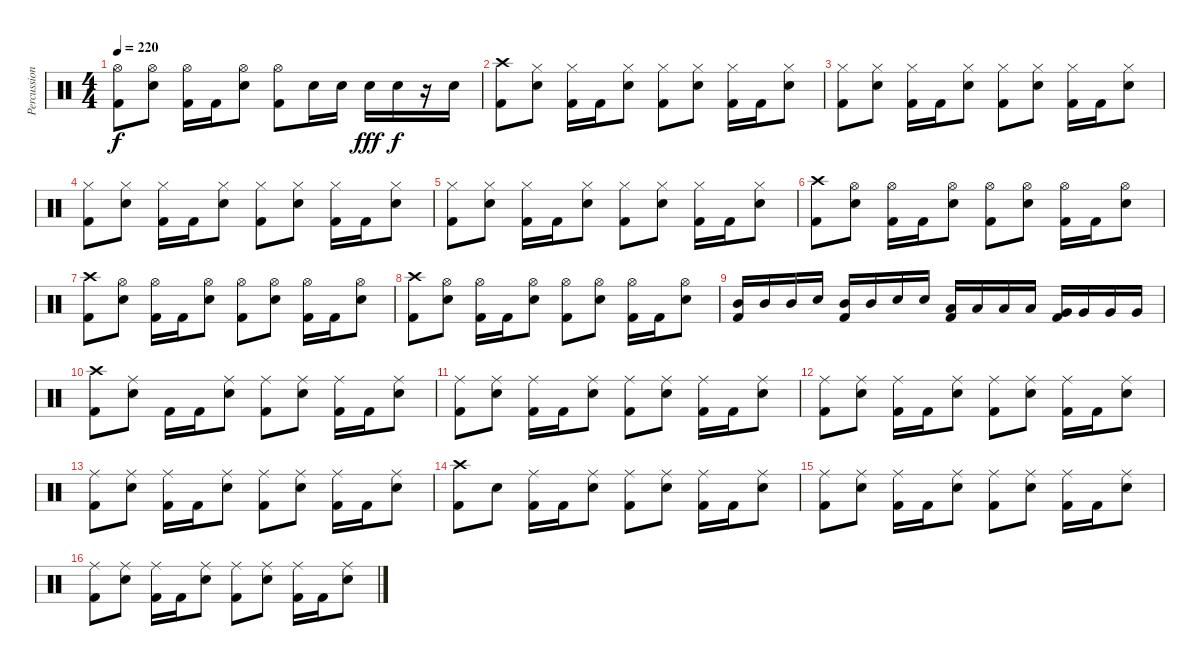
\track ("Percussions" "Percussion") {instrument percussion}
\staff {score}
\articulation defaults
\ts (4 4)
\tempo 220
\clef neutral
\ks c
("Hi-Hat (open)" "Kick (hit) 2").8{dy f} ("Hi-Hat (open)" "Snare (hit) 2").8 ("Hi-Hat (open)" "Kick (hit) 2").16 "Kick (hit) 2".16 ("Hi-Hat (open)" "Snare (hit) 2").8 ("Hi-Hat (open)" "Kick (hit) 2").8 "Snare (hit) 2".16 "Snare (hit) 2".16 "Snare (hit) 2".16{dy fff} "Snare (hit) 2".16{dy f} r.16 "Snare (hit) 2".16 |
("Crash high (hit)" "Kick (hit) 2").8 ("Hi-Hat (closed)" "Snare (hit) 2").8 ("Hi-Hat (closed)" "Kick (hit) 2").16 "Kick (hit) 2".16 ("Hi-Hat (closed)" "Snare (hit) 2").8 ("Hi-Hat (closed)" "Kick (hit) 2").8 ("Hi-Hat (closed)" "Snare (hit) 2").8 ("Hi-Hat (closed)" "Kick (hit) 2").16 "Kick (hit) 2".16 ("Hi-Hat (closed)" "Snare (hit) 2").8 |
("Hi-Hat (closed)" "Kick (hit) 2").8 ("Hi-Hat (closed)" "Snare (hit) 2").8 ("Hi-Hat (closed)" "Kick (hit) 2").16 "Kick (hit) 2".16 ("Hi-Hat (closed)" "Snare (hit) 2").8 ("Hi-Hat (closed)" "Kick (hit) 2").8 ("Hi-Hat (closed)" "Snare (hit) 2").8 ("Hi-Hat (closed)" "Kick (hit) 2").16 "Kick (hit) 2".16 ("Hi-Hat (closed)" "Snare (hit) 2").8 |
("Hi-Hat (closed)" "Kick (hit) 2").8 ("Hi-Hat (closed)" "Snare (hit) 2").8 ("Hi-Hat (closed)" "Kick (hit) 2").16 "Kick (hit) 2".16 ("Hi-Hat (closed)" "Snare (hit) 2").8 ("Hi-Hat (closed)" "Kick (hit) 2").8 ("Hi-Hat (closed)" "Snare (hit) 2").8 ("Hi-Hat (closed)" "Kick (hit) 2").16 "Kick (hit) 2".16 ("Hi-Hat (closed)" "Snare (hit) 2").8 |
("Hi-Hat (closed)" "Kick (hit) 2").8 ("Hi-Hat (closed)" "Snare (hit) 2").8 ("Hi-Hat (closed)" "Kick (hit) 2").16 "Kick (hit) 2".16 ("Hi-Hat (closed)" "Snare (hit) 2").8 ("Hi-Hat (closed)" "Kick (hit) 2").8 ("Hi-Hat (closed)" "Snare (hit) 2").8 ("Hi-Hat (closed)" "Kick (hit) 2").16 "Kick (hit) 2".16 ("Hi-Hat (closed)" "Snare (hit) 2").8 |
("Crash high (hit)" "Kick (hit) 2").8 ("Hi-Hat (open)" "Snare (hit) 2").8 ("Hi-Hat (open)" "Kick (hit) 2").16 "Kick (hit) 2".16 ("Hi-Hat (open)" "Snare (hit) 2").8 ("Hi-Hat (open)" "Kick (hit) 2").8 ("Hi-Hat (open)" "Snare (hit) 2").8 ("Hi-Hat (open)" "Kick (hit) 2").16 "Kick (hit) 2".16 ("Hi-Hat (open)" "Snare (hit) 2").8 |
("Crash high (hit)" "Kick (hit) 2").8 ("Hi-Hat (open)" "Snare (hit) 2").8 ("Hi-Hat (open)" "Kick (hit) 2").16 "Kick (hit) 2".16 ("Hi-Hat (open)" "Snare (hit) 2").8 ("Hi-Hat (open)" "Kick (hit) 2").8 ("Hi-Hat (open)" "Snare (hit) 2").8 ("Hi-Hat (open)" "Kick (hit) 2").16 "Kick (hit) 2".16 ("Hi-Hat (open)" "Snare (hit) 2").8 |
("Crash high (hit)" "Kick (hit) 2").8 ("Hi-Hat (open)" "Snare (hit) 2").8 ("Hi-Hat (open)" "Kick (hit) 2").16 "Kick (hit) 2".16 ("Hi-Hat (open)" "Snare (hit) 2").8 ("Hi-Hat (open)" "Kick (hit) 2").8 ("Hi-Hat (open)" "Snare (hit) 2").8 ("Hi-Hat (open)" "Kick (hit) 2").16 "Kick (hit) 2".16 ("Hi-Hat (open)" "Snare (hit) 2").8 |
("Mid Tom (hit)" "Kick (hit) 2").16 "Mid Tom (hit)".16 "Mid Tom (hit)".16 "Snare (hit) 2".16 ("Mid Tom (hit)" "Kick (hit) 2").16 "Mid Tom (hit)".16 "Snare (hit) 2".16 "Snare (hit) 2".16 ("Low Tom (hit)" "Kick (hit) 2").16 "Low Tom (hit)".16 "Low Tom (hit)".16 "Low Tom (hit)".16 ("Very Low Tom (hit)" "Kick (hit) 2").16 "Very Low Tom (hit)".16 "Very Low Tom (hit)".16 "Very Low Tom (hit)".16 |
("Crash high (hit)" "Kick (hit) 2").8 ("Ride (middle)" "Snare (hit) 2").8 "Kick (hit) 2".16 "Kick (hit) 2".16 ("Ride (middle)" "Snare (hit) 2").8 ("Ride (middle)" "Kick (hit) 2").8 ("Ride (middle)" "Snare (hit) 2").8 ("Ride (middle)" "Kick (hit) 2").16 "Kick (hit) 2".16 ("Ride (middle)" "Snare (hit) 2").8 |
("Ride (middle)" "Kick (hit) 2").8 ("Ride (middle)" "Snare (hit) 2").8 ("Ride (middle)" "Kick (hit) 2").16 "Kick (hit) 2".16 ("Ride (middle)" "Snare (hit) 2").8 ("Ride (middle)" "Kick (hit) 2").8 ("Ride (middle)" "Snare (hit) 2").8 ("Ride (middle)" "Kick (hit) 2").16 "Kick (hit) 2".16 ("Ride (middle)" "Snare (hit) 2").8 |
("Ride (middle)" "Kick (hit) 2").8 ("Ride (middle)" "Snare (hit) 2").8 ("Ride (middle)" "Kick (hit) 2").16 "Kick (hit) 2".16 ("Ride (middle)" "Snare (hit) 2").8 ("Ride (middle)" "Kick (hit) 2").8 ("Ride (middle)" "Snare (hit) 2").8 ("Ride (middle)" "Kick (hit) 2").16 "Kick (hit) 2".16 ("Ride (middle)" "Snare (hit) 2").8 |
("Ride (middle)" "Kick (hit) 2").8 ("Ride (middle)" "Snare (hit) 2").8 ("Ride (middle)" "Kick (hit) 2").16 "Kick (hit) 2".16 ("Ride (middle)" "Snare (hit) 2").8 ("Ride (middle)" "Kick (hit) 2").8 ("Ride (middle)" "Snare (hit) 2").8 ("Ride (middle)" "Kick (hit) 2").16 "Kick (hit) 2".16 ("Ride (middle)" "Snare (hit) 2").8 |
("Crash high (hit)" "Kick (hit) 2").8 "Snare (hit) 2".8 ("Ride (middle)" "Kick (hit) 2").16 "Kick (hit) 2".16 ("Ride (middle)" "Snare (hit) 2").8 ("Ride (middle)" "Kick (hit) 2").8 ("Ride (middle)" "Snare (hit) 2").8 ("Ride (middle)" "Kick (hit) 2").16 "Kick (hit) 2".16 ("Ride (middle)" "Snare (hit) 2").8 |
("Ride (middle)" "Kick (hit) 2").8 ("Ride (middle)" "Snare (hit) 2").8 ("Ride (middle)" "Kick (hit) 2").16 "Kick (hit) 2".16 ("Ride (middle)" "Snare (hit) 2").8 ("Ride (middle)" "Kick (hit) 2").8 ("Ride (middle)" "Snare (hit) 2").8 ("Ride (middle)" "Kick (hit) 2").16 "Kick (hit) 2".16 ("Ride (middle)" "Snare (hit) 2").8 |
("Ride (middle)" "Kick (hit) 2").8 ("Ride (middle)" "Snare (hit) 2").8 ("Ride (middle)" "Kick (hit) 2").16 "Kick (hit) 2".16 ("Ride (middle)" "Snare (hit) 2").8 ("Ride (middle)" "Kick (hit) 2").8 ("Ride (middle)" "Snare (hit) 2").8 ("Ride (middle)" "Kick (hit) 2").16 "Kick (hit) 2".16 ("Ride (middle)" "Snare (hit) 2").8
